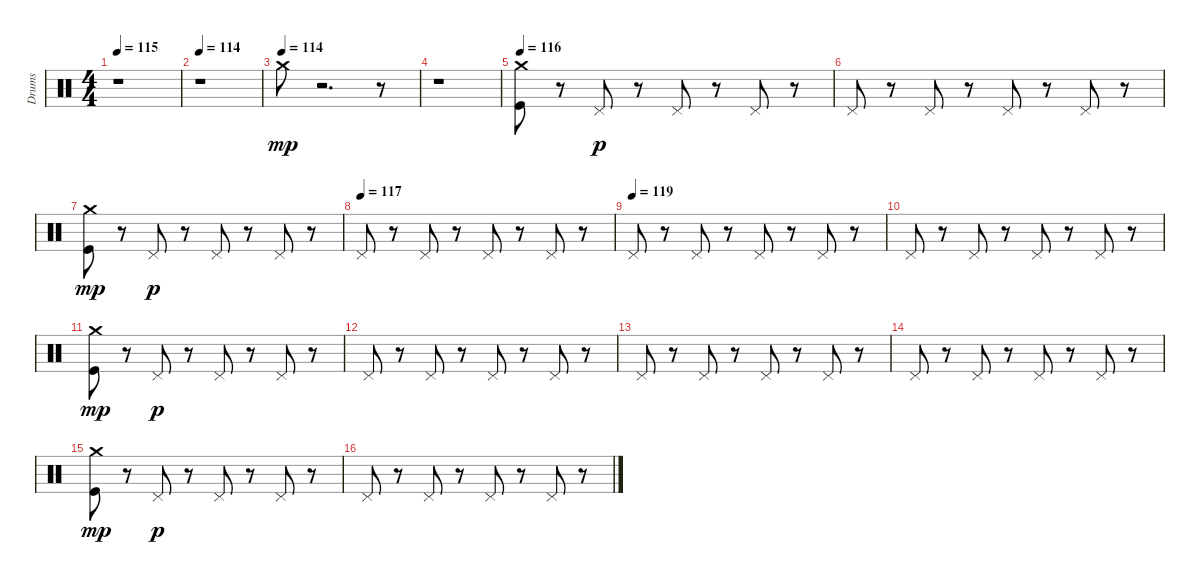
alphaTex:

\track ("Drums" "Drums") {instrument percussion}
\staff {score}
\articulation defaults
\ts (4 4)
\tempo 115
\clef neutral
\ks c
r.1{dy p} |
\tempo 114
r.1 |
\tempo (114)
"Crash medium (hit)".8{dy mp} r.2{d} r.8 |
r.1 |
\tempo 116
("Kick (hit)" "Crash medium (hit)").8 r.8 "Pedal Hi-Hat (hit)".8{dy p} r.8 "Pedal Hi-Hat (hit)".8 r.8 "Pedal Hi-Hat (hit)".8 r.8 |
"Pedal Hi-Hat (hit)".8 r.8 "Pedal Hi-Hat (hit)".8 r.8 "Pedal Hi-Hat (hit)".8 r.8 "Pedal Hi-Hat (hit)".8 r.8 |
("Kick (hit)" "Crash medium (hit)").8{dy mp} r.8 "Pedal Hi-Hat (hit)".8{dy p} r.8 "Pedal Hi-Hat (hit)".8 r.8 "Pedal Hi-Hat (hit)".8 r.8 |
\tempo (117)
"Pedal Hi-Hat (hit)".8 r.8 "Pedal Hi-Hat (hit)".8 r.8 "Pedal Hi-Hat (hit)".8 r.8 "Pedal Hi-Hat (hit)".8 r.8 |
\tempo (119)
"Pedal Hi-Hat (hit)".8 r.8 "Pedal Hi-Hat (hit)".8 r.8 "Pedal Hi-Hat (hit)".8 r.8 "Pedal Hi-Hat (hit)".8 r.8 |
"Pedal Hi-Hat (hit)".8 r.8 "Pedal Hi-Hat (hit)".8 r.8 "Pedal Hi-Hat (hit)".8 r.8 "Pedal Hi-Hat (hit)".8 r.8 |
("Kick (hit)" "Crash medium (hit)").8{dy mp} r.8 "Pedal Hi-Hat (hit)".8{dy p} r.8 "Pedal Hi-Hat (hit)".8 r.8 "Pedal Hi-Hat (hit)".8 r.8 |
"Pedal Hi-Hat (hit)".8 r.8 "Pedal Hi-Hat (hit)".8 r.8 "Pedal Hi-Hat (hit)".8 r.8 "Pedal Hi-Hat (hit)".8 r.8 |
"Pedal Hi-Hat (hit)".8 r.8 "Pedal Hi-Hat (hit)".8 r.8 "Pedal Hi-Hat (hit)".8 r.8 "Pedal Hi-Hat (hit)".8 r.8 |
"Pedal Hi-Hat (hit)".8 r.8 "Pedal Hi-Hat (hit)".8 r.8 "Pedal Hi-Hat (hit)".8 r.8 "Pedal Hi-Hat (hit)".8 r.8 |
("Kick (hit)" "Crash medium (hit)").8{dy mp} r.8 "Pedal Hi-Hat (hit)".8{dy p} r.8 "Pedal Hi-Hat (hit)".8 r.8 "Pedal Hi-Hat (hit)".8 r.8 |
"Pedal Hi-Hat (hit)".8 r.8 "Pedal Hi-Hat (hit)".8 r.8 "Pedal Hi-Hat (hit)".8 r.8 "Pedal Hi-Hat (hit)".8 r.8
